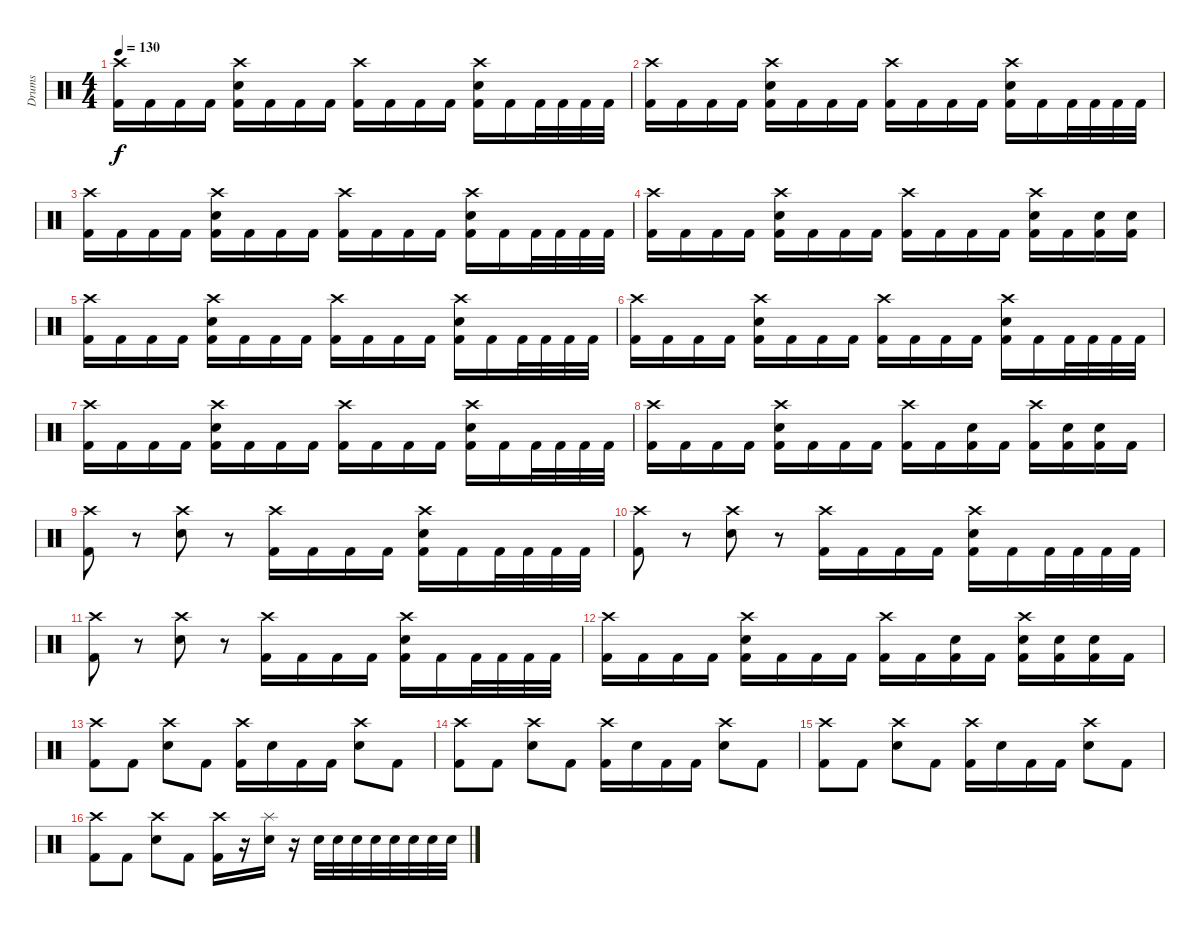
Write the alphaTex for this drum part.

\track ("Drums" "Drums") {instrument percussion}
\staff {score}
\articulation defaults
\ts (4 4)
\tempo 130
\clef neutral
\ks c
("Crash high (hit)" "Kick (hit) 2").16{dy f} "Kick (hit) 2".16 "Kick (hit) 2".16 "Kick (hit) 2".16 ("Crash high (hit)" "Snare (hit) 2" "Kick (hit) 2").16 "Kick (hit) 2".16 "Kick (hit) 2".16 "Kick (hit) 2".16 ("Crash high (hit)" "Kick (hit) 2").16 "Kick (hit) 2".16 "Kick (hit) 2".16 "Kick (hit) 2".16 ("Crash high (hit)" "Snare (hit) 2" "Kick (hit) 2").16 "Kick (hit) 2".16 "Kick (hit) 2".32 "Kick (hit) 2".32 "Kick (hit) 2".32 "Kick (hit) 2".32 |
("Crash high (hit)" "Kick (hit) 2").16 "Kick (hit) 2".16 "Kick (hit) 2".16 "Kick (hit) 2".16 ("Crash high (hit)" "Snare (hit) 2" "Kick (hit) 2").16 "Kick (hit) 2".16 "Kick (hit) 2".16 "Kick (hit) 2".16 ("Crash high (hit)" "Kick (hit) 2").16 "Kick (hit) 2".16 "Kick (hit) 2".16 "Kick (hit) 2".16 ("Crash high (hit)" "Snare (hit) 2" "Kick (hit) 2").16 "Kick (hit) 2".16 "Kick (hit) 2".32 "Kick (hit) 2".32 "Kick (hit) 2".32 "Kick (hit) 2".32 |
("Crash high (hit)" "Kick (hit) 2").16 "Kick (hit) 2".16 "Kick (hit) 2".16 "Kick (hit) 2".16 ("Crash high (hit)" "Snare (hit) 2" "Kick (hit) 2").16 "Kick (hit) 2".16 "Kick (hit) 2".16 "Kick (hit) 2".16 ("Crash high (hit)" "Kick (hit) 2").16 "Kick (hit) 2".16 "Kick (hit) 2".16 "Kick (hit) 2".16 ("Crash high (hit)" "Snare (hit) 2" "Kick (hit) 2").16 "Kick (hit) 2".16 "Kick (hit) 2".32 "Kick (hit) 2".32 "Kick (hit) 2".32 "Kick (hit) 2".32 |
("Crash high (hit)" "Kick (hit) 2").16 "Kick (hit) 2".16 "Kick (hit) 2".16 "Kick (hit) 2".16 ("Crash high (hit)" "Snare (hit) 2" "Kick (hit) 2").16 "Kick (hit) 2".16 "Kick (hit) 2".16 "Kick (hit) 2".16 ("Crash high (hit)" "Kick (hit) 2").16 "Kick (hit) 2".16 "Kick (hit) 2".16 "Kick (hit) 2".16 ("Crash high (hit)" "Snare (hit) 2" "Kick (hit) 2").16 "Kick (hit) 2".16 ("Snare (hit) 2" "Kick (hit) 2").16 ("Snare (hit) 2" "Kick (hit) 2").16 |
("Crash high (hit)" "Kick (hit) 2").16 "Kick (hit) 2".16 "Kick (hit) 2".16 "Kick (hit) 2".16 ("Crash high (hit)" "Snare (hit) 2" "Kick (hit) 2").16 "Kick (hit) 2".16 "Kick (hit) 2".16 "Kick (hit) 2".16 ("Crash high (hit)" "Kick (hit) 2").16 "Kick (hit) 2".16 "Kick (hit) 2".16 "Kick (hit) 2".16 ("Crash high (hit)" "Snare (hit) 2" "Kick (hit) 2").16 "Kick (hit) 2".16 "Kick (hit) 2".32 "Kick (hit) 2".32 "Kick (hit) 2".32 "Kick (hit) 2".32 |
("Crash high (hit)" "Kick (hit) 2").16 "Kick (hit) 2".16 "Kick (hit) 2".16 "Kick (hit) 2".16 ("Crash high (hit)" "Snare (hit) 2" "Kick (hit) 2").16 "Kick (hit) 2".16 "Kick (hit) 2".16 "Kick (hit) 2".16 ("Crash high (hit)" "Kick (hit) 2").16 "Kick (hit) 2".16 "Kick (hit) 2".16 "Kick (hit) 2".16 ("Crash high (hit)" "Snare (hit) 2" "Kick (hit) 2").16 "Kick (hit) 2".16 "Kick (hit) 2".32 "Kick (hit) 2".32 "Kick (hit) 2".32 "Kick (hit) 2".32 |
("Crash high (hit)" "Kick (hit) 2").16 "Kick (hit) 2".16 "Kick (hit) 2".16 "Kick (hit) 2".16 ("Crash high (hit)" "Snare (hit) 2" "Kick (hit) 2").16 "Kick (hit) 2".16 "Kick (hit) 2".16 "Kick (hit) 2".16 ("Crash high (hit)" "Kick (hit) 2").16 "Kick (hit) 2".16 "Kick (hit) 2".16 "Kick (hit) 2".16 ("Crash high (hit)" "Snare (hit) 2" "Kick (hit) 2").16 "Kick (hit) 2".16 "Kick (hit) 2".32 "Kick (hit) 2".32 "Kick (hit) 2".32 "Kick (hit) 2".32 |
("Crash high (hit)" "Kick (hit) 2").16 "Kick (hit) 2".16 "Kick (hit) 2".16 "Kick (hit) 2".16 ("Crash high (hit)" "Snare (hit) 2" "Kick (hit) 2").16 "Kick (hit) 2".16 "Kick (hit) 2".16 "Kick (hit) 2".16 ("Crash high (hit)" "Kick (hit) 2").16 "Kick (hit) 2".16 ("Snare (hit) 2" "Kick (hit) 2").16 "Kick (hit) 2".16 ("Crash high (hit)" "Kick (hit) 2").16 ("Snare (hit) 2" "Kick (hit) 2").16 ("Snare (hit) 2" "Kick (hit) 2").16 "Kick (hit) 2".16 |
("Crash high (hit)" "Kick (hit) 2").8 r.8 ("Crash high (hit)" "Snare (hit) 2").8 r.8 ("Crash high (hit)" "Kick (hit) 2").16 "Kick (hit) 2".16 "Kick (hit) 2".16 "Kick (hit) 2".16 ("Crash high (hit)" "Snare (hit) 2" "Kick (hit) 2").16 "Kick (hit) 2".16 "Kick (hit) 2".32 "Kick (hit) 2".32 "Kick (hit) 2".32 "Kick (hit) 2".32 |
("Crash high (hit)" "Kick (hit) 2").8 r.8 ("Crash high (hit)" "Snare (hit) 2").8 r.8 ("Crash high (hit)" "Kick (hit) 2").16 "Kick (hit) 2".16 "Kick (hit) 2".16 "Kick (hit) 2".16 ("Crash high (hit)" "Snare (hit) 2" "Kick (hit) 2").16 "Kick (hit) 2".16 "Kick (hit) 2".32 "Kick (hit) 2".32 "Kick (hit) 2".32 "Kick (hit) 2".32 |
("Crash high (hit)" "Kick (hit) 2").8 r.8 ("Crash high (hit)" "Snare (hit) 2").8 r.8 ("Crash high (hit)" "Kick (hit) 2").16 "Kick (hit) 2".16 "Kick (hit) 2".16 "Kick (hit) 2".16 ("Crash high (hit)" "Snare (hit) 2" "Kick (hit) 2").16 "Kick (hit) 2".16 "Kick (hit) 2".32 "Kick (hit) 2".32 "Kick (hit) 2".32 "Kick (hit) 2".32 |
("Crash high (hit)" "Kick (hit) 2").16 "Kick (hit) 2".16 "Kick (hit) 2".16 "Kick (hit) 2".16 ("Crash high (hit)" "Snare (hit) 2" "Kick (hit) 2").16 "Kick (hit) 2".16 "Kick (hit) 2".16 "Kick (hit) 2".16 ("Crash high (hit)" "Kick (hit) 2").16 "Kick (hit) 2".16 ("Snare (hit) 2" "Kick (hit) 2").16 "Kick (hit) 2".16 ("Crash high (hit)" "Snare (hit) 2" "Kick (hit) 2").16 ("Snare (hit) 2" "Kick (hit) 2").16 ("Snare (hit) 2" "Kick (hit) 2").16 "Kick (hit) 2".16 |
("Crash high (hit)" "Kick (hit) 2").8 "Kick (hit) 2".8 ("Crash high (hit)" "Snare (hit) 2").8 "Kick (hit) 2".8 ("Crash high (hit)" "Kick (hit) 2").16 "Snare (hit) 2".16 "Kick (hit) 2".16 "Kick (hit) 2".16 ("Crash high (hit)" "Snare (hit) 2").8 "Kick (hit) 2".8 |
("Crash high (hit)" "Kick (hit) 2").8 "Kick (hit) 2".8 ("Crash high (hit)" "Snare (hit) 2").8 "Kick (hit) 2".8 ("Crash high (hit)" "Kick (hit) 2").16 "Snare (hit) 2".16 "Kick (hit) 2".16 "Kick (hit) 2".16 ("Crash high (hit)" "Snare (hit) 2").8 "Kick (hit) 2".8 |
("Crash high (hit)" "Kick (hit) 2").8 "Kick (hit) 2".8 ("Crash high (hit)" "Snare (hit) 2").8 "Kick (hit) 2".8 ("Crash high (hit)" "Kick (hit) 2").16 "Snare (hit) 2".16 "Kick (hit) 2".16 "Kick (hit) 2".16 ("Crash high (hit)" "Snare (hit) 2").8 "Kick (hit) 2".8 |
("Crash high (hit)" "Kick (hit) 2").8 "Kick (hit) 2".8 ("Crash high (hit)" "Snare (hit) 2").8 "Kick (hit) 2".8 ("Crash high (hit)" "Kick (hit) 2").16 r.16 ("Splash (hit)" "Snare (hit) 2").16 r.16 "Snare (hit) 2".32 "Snare (hit) 2".32 "Snare (hit) 2".32 "Snare (hit) 2".32 "Snare (hit) 2".32 "Snare (hit) 2".32 "Snare (hit) 2".32 "Snare (hit) 2".32
